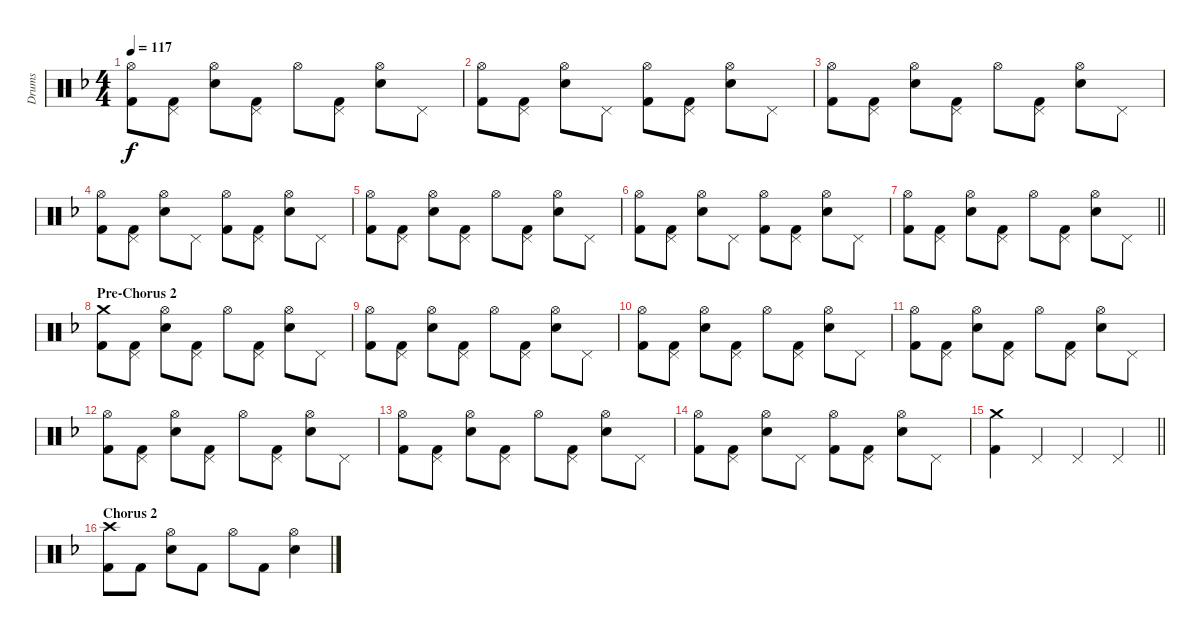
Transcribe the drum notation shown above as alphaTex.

\track ("Drums" "Drums") {instrument percussion}
\staff {score}
\articulation defaults
\ts (4 4)
\tempo 117
\clef neutral
\ks dminor
("Hi-Hat (open)" "Kick (hit) 2").8{dy f} ("Pedal Hi-Hat (hit)" "Kick (hit) 2").8 ("Hi-Hat (open)" "Snare (hit) 2").8 ("Pedal Hi-Hat (hit)" "Kick (hit) 2").8 "Hi-Hat (open)".8 ("Pedal Hi-Hat (hit)" "Kick (hit) 2").8 ("Hi-Hat (open)" "Snare (hit) 2").8 "Pedal Hi-Hat (hit)".8 |
("Hi-Hat (open)" "Kick (hit) 2").8 ("Pedal Hi-Hat (hit)" "Kick (hit) 2").8 ("Hi-Hat (open)" "Snare (hit) 2").8 "Pedal Hi-Hat (hit)".8 ("Hi-Hat (open)" "Kick (hit) 2").8 ("Pedal Hi-Hat (hit)" "Kick (hit) 2").8 ("Hi-Hat (open)" "Snare (hit) 2").8 "Pedal Hi-Hat (hit)".8 |
("Hi-Hat (open)" "Kick (hit) 2").8 ("Pedal Hi-Hat (hit)" "Kick (hit) 2").8 ("Hi-Hat (open)" "Snare (hit) 2").8 ("Pedal Hi-Hat (hit)" "Kick (hit) 2").8 "Hi-Hat (open)".8 ("Pedal Hi-Hat (hit)" "Kick (hit) 2").8 ("Hi-Hat (open)" "Snare (hit) 2").8 "Pedal Hi-Hat (hit)".8 |
("Hi-Hat (open)" "Kick (hit) 2").8 ("Pedal Hi-Hat (hit)" "Kick (hit) 2").8 ("Hi-Hat (open)" "Snare (hit) 2").8 "Pedal Hi-Hat (hit)".8 ("Hi-Hat (open)" "Kick (hit) 2").8 ("Pedal Hi-Hat (hit)" "Kick (hit) 2").8 ("Hi-Hat (open)" "Snare (hit) 2").8 "Pedal Hi-Hat (hit)".8 |
("Hi-Hat (open)" "Kick (hit) 2").8 ("Pedal Hi-Hat (hit)" "Kick (hit) 2").8 ("Hi-Hat (open)" "Snare (hit) 2").8 ("Pedal Hi-Hat (hit)" "Kick (hit) 2").8 "Hi-Hat (open)".8 ("Pedal Hi-Hat (hit)" "Kick (hit) 2").8 ("Hi-Hat (open)" "Snare (hit) 2").8 "Pedal Hi-Hat (hit)".8 |
("Hi-Hat (open)" "Kick (hit) 2").8 ("Pedal Hi-Hat (hit)" "Kick (hit) 2").8 ("Hi-Hat (open)" "Snare (hit) 2").8 "Pedal Hi-Hat (hit)".8 ("Hi-Hat (open)" "Kick (hit) 2").8 ("Pedal Hi-Hat (hit)" "Kick (hit) 2").8 ("Hi-Hat (open)" "Snare (hit) 2").8 "Pedal Hi-Hat (hit)".8 |
\barLineRight lightlight
("Hi-Hat (open)" "Kick (hit) 2").8 ("Pedal Hi-Hat (hit)" "Kick (hit) 2").8 ("Hi-Hat (open)" "Snare (hit) 2").8 ("Pedal Hi-Hat (hit)" "Kick (hit) 2").8 "Hi-Hat (open)".8 ("Pedal Hi-Hat (hit)" "Kick (hit) 2").8 ("Hi-Hat (open)" "Snare (hit) 2").8 "Pedal Hi-Hat (hit)".8 |
\section ("" "Pre-Chorus 2")
("Kick (hit) 2" "Crash medium (hit)").8 ("Pedal Hi-Hat (hit)" "Kick (hit) 2").8 ("Hi-Hat (open)" "Snare (hit) 2").8 ("Pedal Hi-Hat (hit)" "Kick (hit) 2").8 "Hi-Hat (open)".8 ("Pedal Hi-Hat (hit)" "Kick (hit) 2").8 ("Hi-Hat (open)" "Snare (hit) 2").8 "Pedal Hi-Hat (hit)".8 |
("Hi-Hat (open)" "Kick (hit) 2").8 ("Pedal Hi-Hat (hit)" "Kick (hit) 2").8 ("Hi-Hat (open)" "Snare (hit) 2").8 ("Pedal Hi-Hat (hit)" "Kick (hit) 2").8 "Hi-Hat (open)".8 ("Pedal Hi-Hat (hit)" "Kick (hit) 2").8 ("Hi-Hat (open)" "Snare (hit) 2").8 "Pedal Hi-Hat (hit)".8 |
("Hi-Hat (open)" "Kick (hit) 2").8 ("Pedal Hi-Hat (hit)" "Kick (hit) 2").8 ("Hi-Hat (open)" "Snare (hit) 2").8 ("Pedal Hi-Hat (hit)" "Kick (hit) 2").8 "Hi-Hat (open)".8 ("Pedal Hi-Hat (hit)" "Kick (hit) 2").8 ("Hi-Hat (open)" "Snare (hit) 2").8 "Pedal Hi-Hat (hit)".8 |
("Hi-Hat (open)" "Kick (hit) 2").8 ("Pedal Hi-Hat (hit)" "Kick (hit) 2").8 ("Hi-Hat (open)" "Snare (hit) 2").8 ("Pedal Hi-Hat (hit)" "Kick (hit) 2").8 "Hi-Hat (open)".8 ("Pedal Hi-Hat (hit)" "Kick (hit) 2").8 ("Hi-Hat (open)" "Snare (hit) 2").8 "Pedal Hi-Hat (hit)".8 |
("Hi-Hat (open)" "Kick (hit) 2").8 ("Pedal Hi-Hat (hit)" "Kick (hit) 2").8 ("Hi-Hat (open)" "Snare (hit) 2").8 ("Pedal Hi-Hat (hit)" "Kick (hit) 2").8 "Hi-Hat (open)".8 ("Pedal Hi-Hat (hit)" "Kick (hit) 2").8 ("Hi-Hat (open)" "Snare (hit) 2").8 "Pedal Hi-Hat (hit)".8 |
("Hi-Hat (open)" "Kick (hit) 2").8 ("Pedal Hi-Hat (hit)" "Kick (hit) 2").8 ("Hi-Hat (open)" "Snare (hit) 2").8 ("Pedal Hi-Hat (hit)" "Kick (hit) 2").8 "Hi-Hat (open)".8 ("Pedal Hi-Hat (hit)" "Kick (hit) 2").8 ("Hi-Hat (open)" "Snare (hit) 2").8 "Pedal Hi-Hat (hit)".8 |
("Hi-Hat (open)" "Kick (hit) 2").8 ("Pedal Hi-Hat (hit)" "Kick (hit) 2").8 ("Hi-Hat (open)" "Snare (hit) 2").8 "Pedal Hi-Hat (hit)".8 ("Hi-Hat (open)" "Kick (hit) 2").8 ("Pedal Hi-Hat (hit)" "Kick (hit) 2").8 ("Hi-Hat (open)" "Snare (hit) 2").8 "Pedal Hi-Hat (hit)".8 |
\barLineRight lightlight
("Kick (hit) 2" "Crash medium (hit)").4 "Pedal Hi-Hat (hit)".4 "Pedal Hi-Hat (hit)".4 "Pedal Hi-Hat (hit)".4 |
\section ("" "Chorus 2")
("Kick (hit) 2" "Crash high (hit)").8 "Kick (hit) 2".8 ("Hi-Hat (open)" "Snare (hit) 2").8 "Kick (hit) 2".8 "Hi-Hat (open)".8 "Kick (hit) 2".8 ("Hi-Hat (open)" "Snare (hit) 2").4
